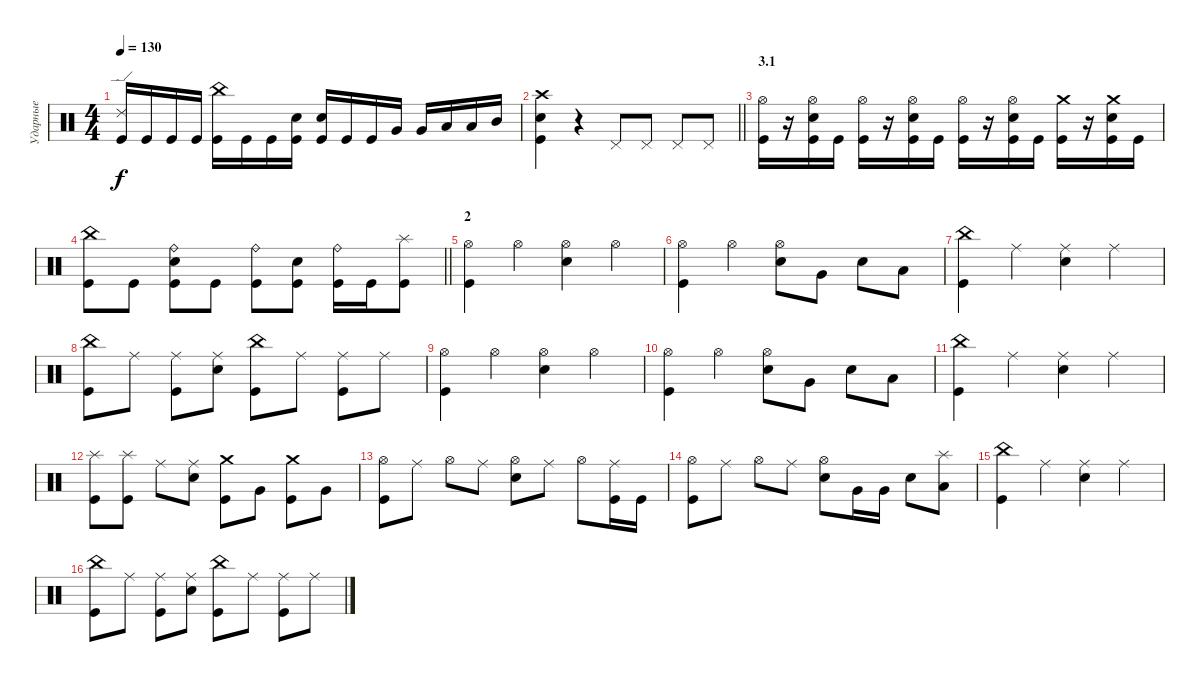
\track ("Ударные" "Ударные") {instrument percussion}
\staff {score}
\articulation defaults
\ts (4 4)
\tempo 130
\clef neutral
\ks c
("Ride (edge) 2" "Kick (hit)").16{dy f} "Kick (hit)".16 "Kick (hit)".16 "Kick (hit)".16 ("China (hit)" "Kick (hit)").16 "Kick (hit)".16 "Kick (hit)".16 ("Electric Snare (hit)" "Kick (hit)").16 ("Electric Snare (hit)" "Kick (hit)").16 "Kick (hit)".16 "Kick (hit)".16 "Very Low Tom (hit)".16 "Very Low Tom (hit)".16 "Low Tom (hit)".16 "Low Tom (hit)".16 "Mid Tom (hit)".16 |
\barLineRight lightlight
("Crash high (hit)" "Electric Snare (hit)" "Kick (hit)").4 r.4 "Pedal Hi-Hat (hit)".8 "Pedal Hi-Hat (hit)".8 "Pedal Hi-Hat (hit)".8 "Pedal Hi-Hat (hit)".8 |
\section ("" "3.1")
("Hi-Hat (open)" "Kick (hit)").16 r.16 ("Hi-Hat (open)" "Electric Snare (hit)" "Kick (hit)").16 "Kick (hit)".16 ("Hi-Hat (open)" "Kick (hit)").16 r.16 ("Hi-Hat (open)" "Electric Snare (hit)" "Kick (hit)").16 "Kick (hit)".16 ("Hi-Hat (open)" "Kick (hit)").16 r.16 ("Hi-Hat (open)" "Electric Snare (hit)" "Kick (hit)").16 "Kick (hit)".16 ("Crash medium (hit)" "Kick (hit)").16 r.16 ("Crash medium (hit)" "Electric Snare (hit)" "Kick (hit)").16 "Kick (hit)".16 |
\barLineRight lightlight
("China (hit)" "Kick (hit)").8 "Kick (hit)".8 ("Ride (bell)" "Electric Snare (hit)" "Kick (hit)").8 "Kick (hit)".8 ("Ride (bell)" "Kick (hit)").8 ("Electric Snare (hit)" "Kick (hit)").8 ("Ride (bell)" "Kick (hit)").16 "Kick (hit)".16 ("Splash (hit)" "Kick (hit)").8 |
\section ("" "2")
("Hi-Hat (open)" "Kick (hit)").4 "Hi-Hat (open)".4 ("Hi-Hat (open)" "Electric Snare (hit)").4 "Hi-Hat (open)".4 |
("Hi-Hat (open)" "Kick (hit)").4 "Hi-Hat (open)".4 ("Hi-Hat (open)" "Electric Snare (hit)").8 "Very Low Tom (hit)".8 "Electric Snare (hit)".8 "Low Floor Tom (hit)".8 |
("China (hit)" "Kick (hit)").4 "Ride (middle)".4 ("Ride (middle)" "Electric Snare (hit)").4 "Ride (middle)".4 |
("China (hit)" "Kick (hit)").8 "Ride (middle)".8 ("Ride (middle)" "Kick (hit)").8 ("Ride (middle)" "Electric Snare (hit)").8 ("China (hit)" "Kick (hit)").8 "Ride (middle)".8 ("Ride (middle)" "Kick (hit)").8 "Ride (middle)".8 |
("Hi-Hat (open)" "Kick (hit)").4 "Hi-Hat (open)".4 ("Hi-Hat (open)" "Electric Snare (hit)").4 "Hi-Hat (open)".4 |
("Hi-Hat (open)" "Kick (hit)").4 "Hi-Hat (open)".4 ("Hi-Hat (open)" "Electric Snare (hit)").8 "Very Low Tom (hit)".8 "Electric Snare (hit)".8 "Low Floor Tom (hit)".8 |
("China (hit)" "Kick (hit)").4 "Ride (middle)".4 ("Ride (middle)" "Electric Snare (hit)").4 "Ride (middle)".4 |
("Splash (hit)" "Kick (hit)").8 ("Splash (hit)" "Kick (hit)").8 "Ride (middle)".8 ("Ride (middle)" "Electric Snare (hit)").8 ("Crash medium (hit)" "Kick (hit)").8 "Very Low Tom (hit)".8 ("Crash medium (hit)" "Kick (hit)").8 "Very Low Tom (hit)".8 |
("Hi-Hat (open)" "Kick (hit)").8 "Ride (middle)".8 "Hi-Hat (open)".8 "Ride (middle)".8 ("Hi-Hat (open)" "Electric Snare (hit)").8 "Ride (middle)".8 "Hi-Hat (open)".8 ("Ride (middle)" "Kick (hit)").16 "Kick (hit)".16 |
("Hi-Hat (open)" "Kick (hit)").8 "Ride (middle)".8 "Hi-Hat (open)".8 "Ride (middle)".8 ("Hi-Hat (open)" "Electric Snare (hit)").8 "Very Low Tom (hit)".16 "Very Low Tom (hit)".16 "Electric Snare (hit)".8 ("Splash (hit)" "Low Floor Tom (hit)").8 |
("China (hit)" "Kick (hit)").4 "Ride (middle)".4 ("Ride (middle)" "Electric Snare (hit)").4 "Ride (middle)".4 |
("China (hit)" "Kick (hit)").8 "Ride (middle)".8 ("Ride (middle)" "Kick (hit)").8 ("Ride (middle)" "Electric Snare (hit)").8 ("China (hit)" "Kick (hit)").8 "Ride (middle)".8 ("Ride (middle)" "Kick (hit)").8 "Ride (middle)".8
